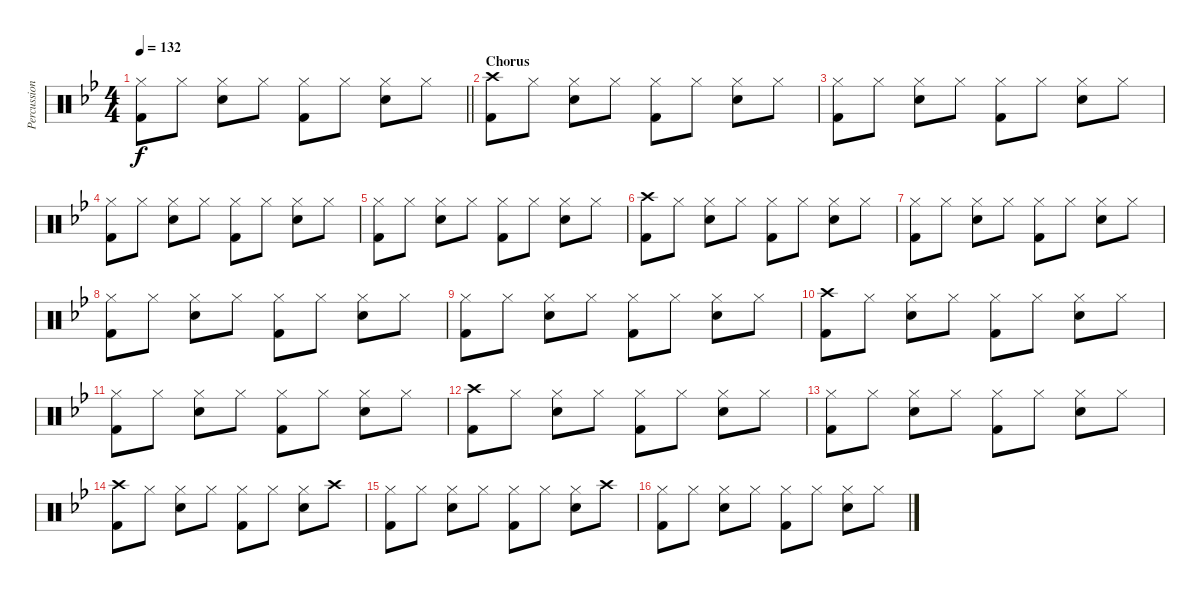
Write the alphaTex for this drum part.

\track ("Percussion" "Percussion") {instrument percussion}
\staff {score}
\articulation defaults
\ts (4 4)
\tempo 132
\clef neutral
\barLineRight lightlight
\ks bb
("Hi-Hat (closed)" "Kick (hit) 2").8{dy f} "Hi-Hat (closed)".8 ("Hi-Hat (closed)" "Snare (hit) 2").8 "Hi-Hat (closed)".8 ("Hi-Hat (closed)" "Kick (hit) 2").8 "Hi-Hat (closed)".8 ("Hi-Hat (closed)" "Snare (hit) 2").8 "Hi-Hat (closed)".8 |
\section ("" "Chorus")
("Crash high (hit)" "Kick (hit) 2").8 "Hi-Hat (closed)".8 ("Hi-Hat (closed)" "Snare (hit) 2").8 "Hi-Hat (closed)".8 ("Hi-Hat (closed)" "Kick (hit) 2").8 "Hi-Hat (closed)".8 ("Hi-Hat (closed)" "Snare (hit) 2").8 "Hi-Hat (closed)".8 |
("Hi-Hat (closed)" "Kick (hit) 2").8 "Hi-Hat (closed)".8 ("Hi-Hat (closed)" "Snare (hit) 2").8 "Hi-Hat (closed)".8 ("Hi-Hat (closed)" "Kick (hit) 2").8 "Hi-Hat (closed)".8 ("Hi-Hat (closed)" "Snare (hit) 2").8 "Hi-Hat (closed)".8 |
("Hi-Hat (closed)" "Kick (hit) 2").8 "Hi-Hat (closed)".8 ("Hi-Hat (closed)" "Snare (hit) 2").8 "Hi-Hat (closed)".8 ("Hi-Hat (closed)" "Kick (hit) 2").8 "Hi-Hat (closed)".8 ("Hi-Hat (closed)" "Snare (hit) 2").8 "Hi-Hat (closed)".8 |
("Hi-Hat (closed)" "Kick (hit) 2").8 "Hi-Hat (closed)".8 ("Hi-Hat (closed)" "Snare (hit) 2").8 "Hi-Hat (closed)".8 ("Hi-Hat (closed)" "Kick (hit) 2").8 "Hi-Hat (closed)".8 ("Hi-Hat (closed)" "Snare (hit) 2").8 "Hi-Hat (closed)".8 |
("Crash high (hit)" "Kick (hit) 2").8 "Hi-Hat (closed)".8 ("Hi-Hat (closed)" "Snare (hit) 2").8 "Hi-Hat (closed)".8 ("Hi-Hat (closed)" "Kick (hit) 2").8 "Hi-Hat (closed)".8 ("Hi-Hat (closed)" "Snare (hit) 2").8 "Hi-Hat (closed)".8 |
("Hi-Hat (closed)" "Kick (hit) 2").8 "Hi-Hat (closed)".8 ("Hi-Hat (closed)" "Snare (hit) 2").8 "Hi-Hat (closed)".8 ("Hi-Hat (closed)" "Kick (hit) 2").8 "Hi-Hat (closed)".8 ("Hi-Hat (closed)" "Snare (hit) 2").8 "Hi-Hat (closed)".8 |
("Hi-Hat (closed)" "Kick (hit) 2").8 "Hi-Hat (closed)".8 ("Hi-Hat (closed)" "Snare (hit) 2").8 "Hi-Hat (closed)".8 ("Hi-Hat (closed)" "Kick (hit) 2").8 "Hi-Hat (closed)".8 ("Hi-Hat (closed)" "Snare (hit) 2").8 "Hi-Hat (closed)".8 |
("Hi-Hat (closed)" "Kick (hit) 2").8 "Hi-Hat (closed)".8 ("Hi-Hat (closed)" "Snare (hit) 2").8 "Hi-Hat (closed)".8 ("Hi-Hat (closed)" "Kick (hit) 2").8 "Hi-Hat (closed)".8 ("Hi-Hat (closed)" "Snare (hit) 2").8 "Hi-Hat (closed)".8 |
("Crash high (hit)" "Kick (hit) 2").8 "Hi-Hat (closed)".8 ("Hi-Hat (closed)" "Snare (hit) 2").8 "Hi-Hat (closed)".8 ("Hi-Hat (closed)" "Kick (hit) 2").8 "Hi-Hat (closed)".8 ("Hi-Hat (closed)" "Snare (hit) 2").8 "Hi-Hat (closed)".8 |
("Hi-Hat (closed)" "Kick (hit) 2").8 "Hi-Hat (closed)".8 ("Hi-Hat (closed)" "Snare (hit) 2").8 "Hi-Hat (closed)".8 ("Hi-Hat (closed)" "Kick (hit) 2").8 "Hi-Hat (closed)".8 ("Hi-Hat (closed)" "Snare (hit) 2").8 "Hi-Hat (closed)".8 |
("Crash high (hit)" "Kick (hit) 2").8 "Hi-Hat (closed)".8 ("Hi-Hat (closed)" "Snare (hit) 2").8 "Hi-Hat (closed)".8 ("Hi-Hat (closed)" "Kick (hit) 2").8 "Hi-Hat (closed)".8 ("Hi-Hat (closed)" "Snare (hit) 2").8 "Hi-Hat (closed)".8 |
("Hi-Hat (closed)" "Kick (hit) 2").8 "Hi-Hat (closed)".8 ("Hi-Hat (closed)" "Snare (hit) 2").8 "Hi-Hat (closed)".8 ("Hi-Hat (closed)" "Kick (hit) 2").8 "Hi-Hat (closed)".8 ("Hi-Hat (closed)" "Snare (hit) 2").8 "Hi-Hat (closed)".8 |
("Crash high (hit)" "Kick (hit) 2").8 "Hi-Hat (closed)".8 ("Hi-Hat (closed)" "Snare (hit) 2").8 "Hi-Hat (closed)".8 ("Hi-Hat (closed)" "Kick (hit) 2").8 "Hi-Hat (closed)".8 ("Hi-Hat (closed)" "Snare (hit) 2").8 "Crash high (hit)".8 |
("Hi-Hat (closed)" "Kick (hit) 2").8 "Hi-Hat (closed)".8 ("Hi-Hat (closed)" "Snare (hit) 2").8 "Hi-Hat (closed)".8 ("Hi-Hat (closed)" "Kick (hit) 2").8 "Hi-Hat (closed)".8 ("Hi-Hat (closed)" "Snare (hit) 2").8 "Crash high (hit)".8 |
("Hi-Hat (closed)" "Kick (hit) 2").8 "Hi-Hat (closed)".8 ("Hi-Hat (closed)" "Snare (hit) 2").8 "Hi-Hat (closed)".8 ("Hi-Hat (closed)" "Kick (hit) 2").8 "Hi-Hat (closed)".8 ("Hi-Hat (closed)" "Snare (hit) 2").8 "Hi-Hat (closed)".8
